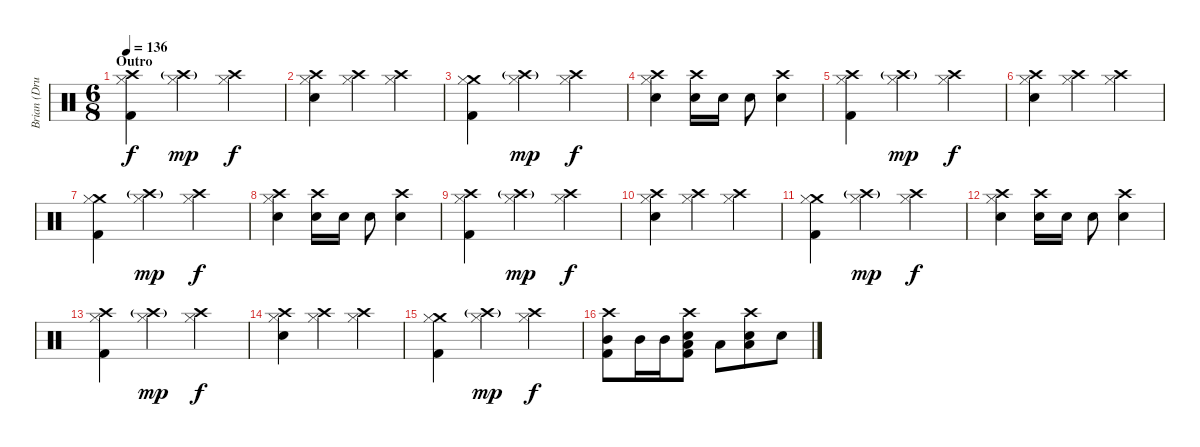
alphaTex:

\track ("Brian (Drums)" "Brian (Dru") {instrument percussion}
\staff {score}
\articulation defaults
\ts (6 8)
\section ("" "Outro")
\tempo 136
\clef neutral
\ks c
("Crash high (hit)" "Hi-Hat (closed)" "Kick (hit) 2").4{dy f} ("Crash high (hit)"{g} "Hi-Hat (closed)").4{dy mp} ("Crash high (hit)" "Hi-Hat (closed)").4{dy f} |
("Crash high (hit)" "Hi-Hat (closed)" "Electric Snare (hit)").4 ("Crash high (hit)" "Hi-Hat (closed)").4 ("Crash high (hit)" "Hi-Hat (closed)").4 |
("Crash medium (hit)" "Hi-Hat (closed)" "Kick (hit) 2").4 ("Crash high (hit)"{g} "Hi-Hat (closed)").4{dy mp} ("Crash high (hit)" "Hi-Hat (closed)").4{dy f} |
("Crash high (hit)" "Hi-Hat (closed)" "Electric Snare (hit)").4 ("Crash high (hit)" "Electric Snare (hit)").16 "Electric Snare (hit)".16 "Electric Snare (hit)".8 ("Crash high (hit)" "Electric Snare (hit)").4 |
("Crash high (hit)" "Hi-Hat (closed)" "Kick (hit) 2").4 ("Crash high (hit)"{g} "Hi-Hat (closed)").4{dy mp} ("Crash high (hit)" "Hi-Hat (closed)").4{dy f} |
("Crash high (hit)" "Hi-Hat (closed)" "Electric Snare (hit)").4 ("Crash high (hit)" "Hi-Hat (closed)").4 ("Crash high (hit)" "Hi-Hat (closed)").4 |
("Crash medium (hit)" "Hi-Hat (closed)" "Kick (hit) 2").4 ("Crash high (hit)"{g} "Hi-Hat (closed)").4{dy mp} ("Crash high (hit)" "Hi-Hat (closed)").4{dy f} |
("Crash high (hit)" "Hi-Hat (closed)" "Electric Snare (hit)").4 ("Crash high (hit)" "Electric Snare (hit)").16 "Electric Snare (hit)".16 "Electric Snare (hit)".8 ("Crash high (hit)" "Electric Snare (hit)").4 |
("Crash high (hit)" "Hi-Hat (closed)" "Kick (hit) 2").4 ("Crash high (hit)"{g} "Hi-Hat (closed)").4{dy mp} ("Crash high (hit)" "Hi-Hat (closed)").4{dy f} |
("Crash high (hit)" "Hi-Hat (closed)" "Electric Snare (hit)").4 ("Crash high (hit)" "Hi-Hat (closed)").4 ("Crash high (hit)" "Hi-Hat (closed)").4 |
("Crash medium (hit)" "Hi-Hat (closed)" "Kick (hit) 2").4 ("Crash high (hit)"{g} "Hi-Hat (closed)").4{dy mp} ("Crash high (hit)" "Hi-Hat (closed)").4{dy f} |
("Crash high (hit)" "Hi-Hat (closed)" "Electric Snare (hit)").4 ("Crash high (hit)" "Electric Snare (hit)").16 "Electric Snare (hit)".16 "Electric Snare (hit)".8 ("Crash high (hit)" "Electric Snare (hit)").4 |
("Crash high (hit)" "Hi-Hat (closed)" "Kick (hit) 2").4 ("Crash high (hit)"{g} "Hi-Hat (closed)").4{dy mp} ("Crash high (hit)" "Hi-Hat (closed)").4{dy f} |
("Crash high (hit)" "Hi-Hat (closed)" "Electric Snare (hit)").4 ("Crash high (hit)" "Hi-Hat (closed)").4 ("Crash high (hit)" "Hi-Hat (closed)").4 |
("Crash medium (hit)" "Hi-Hat (closed)" "Kick (hit) 2").4 ("Crash high (hit)"{g} "Hi-Hat (closed)").4{dy mp} ("Crash high (hit)" "Hi-Hat (closed)").4{dy f} |
("Crash high (hit)" "Mid Tom (hit)" "Kick (hit) 2").8 "Mid Tom (hit)".16 "Mid Tom (hit)".16 ("Crash high (hit)" "Low Tom (hit)" "Electric Snare (hit)" "Kick (hit) 2").8 "Low Tom (hit)".8 ("Crash high (hit)" "Low Tom (hit)" "Electric Snare (hit)").8 "Electric Snare (hit)".8
